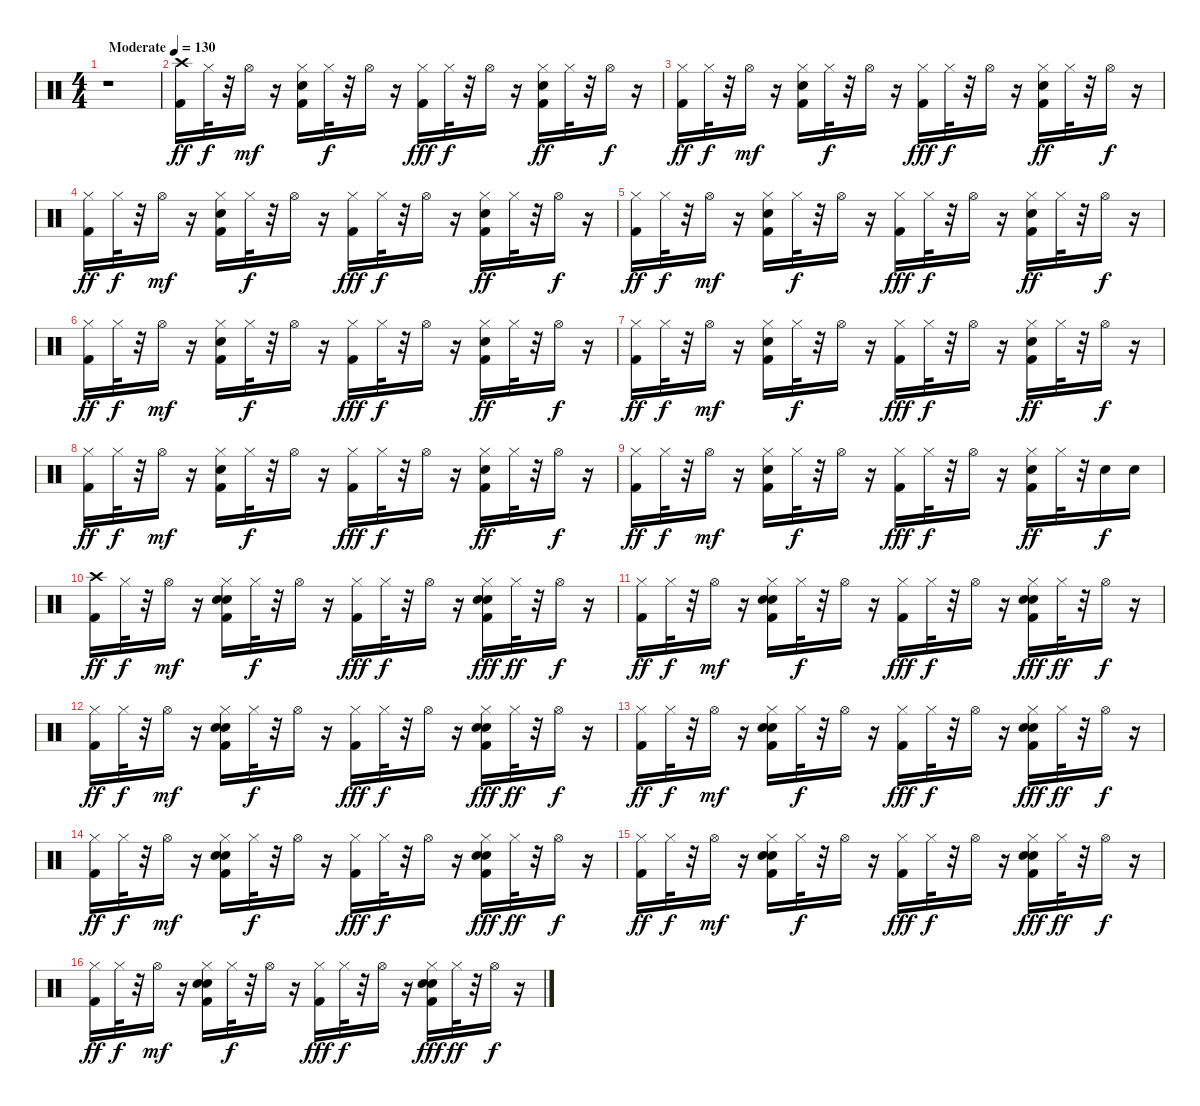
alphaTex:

\track "" {instrument percussion}
\staff {score}
\articulation defaults
\ts (4 4)
\tempo (130 "Moderate")
\clef neutral
\ks c
r.1{dy ff} |
("Kick (hit) 2" "Crash high (hit)").16 "Hi-Hat (closed)".32{dy f} r.32 "Hi-Hat (open)".16{dy mf} r.16 ("Kick (hit) 2" "Electric Snare (hit)" "Hi-Hat (closed)").16 "Hi-Hat (closed)".32{dy f} r.32 "Hi-Hat (open)".16 r.16 ("Kick (hit) 2" "Hi-Hat (closed)").16{dy fff} "Hi-Hat (closed)".32{dy f} r.32 "Hi-Hat (open)".16 r.16 ("Kick (hit) 2" "Electric Snare (hit)" "Hi-Hat (closed)").16{dy ff} "Hi-Hat (closed)".32 r.32 "Hi-Hat (open)".16{dy f} r.16 |
("Kick (hit) 2" "Hi-Hat (closed)").16{dy ff} "Hi-Hat (closed)".32{dy f} r.32 "Hi-Hat (open)".16{dy mf} r.16 ("Kick (hit) 2" "Electric Snare (hit)" "Hi-Hat (closed)").16 "Hi-Hat (closed)".32{dy f} r.32 "Hi-Hat (open)".16 r.16 ("Kick (hit) 2" "Hi-Hat (closed)").16{dy fff} "Hi-Hat (closed)".32{dy f} r.32 "Hi-Hat (open)".16 r.16 ("Kick (hit) 2" "Electric Snare (hit)" "Hi-Hat (closed)").16{dy ff} "Hi-Hat (closed)".32 r.32 "Hi-Hat (open)".16{dy f} r.16 |
("Kick (hit) 2" "Hi-Hat (closed)").16{dy ff} "Hi-Hat (closed)".32{dy f} r.32 "Hi-Hat (open)".16{dy mf} r.16 ("Kick (hit) 2" "Electric Snare (hit)" "Hi-Hat (closed)").16 "Hi-Hat (closed)".32{dy f} r.32 "Hi-Hat (open)".16 r.16 ("Kick (hit) 2" "Hi-Hat (closed)").16{dy fff} "Hi-Hat (closed)".32{dy f} r.32 "Hi-Hat (open)".16 r.16 ("Kick (hit) 2" "Electric Snare (hit)" "Hi-Hat (closed)").16{dy ff} "Hi-Hat (closed)".32 r.32 "Hi-Hat (open)".16{dy f} r.16 |
("Kick (hit) 2" "Hi-Hat (closed)").16{dy ff} "Hi-Hat (closed)".32{dy f} r.32 "Hi-Hat (open)".16{dy mf} r.16 ("Kick (hit) 2" "Electric Snare (hit)" "Hi-Hat (closed)").16 "Hi-Hat (closed)".32{dy f} r.32 "Hi-Hat (open)".16 r.16 ("Kick (hit) 2" "Hi-Hat (closed)").16{dy fff} "Hi-Hat (closed)".32{dy f} r.32 "Hi-Hat (open)".16 r.16 ("Kick (hit) 2" "Electric Snare (hit)" "Hi-Hat (closed)").16{dy ff} "Hi-Hat (closed)".32 r.32 "Hi-Hat (open)".16{dy f} r.16 |
("Kick (hit) 2" "Hi-Hat (closed)").16{dy ff} "Hi-Hat (closed)".32{dy f} r.32 "Hi-Hat (open)".16{dy mf} r.16 ("Kick (hit) 2" "Electric Snare (hit)" "Hi-Hat (closed)").16 "Hi-Hat (closed)".32{dy f} r.32 "Hi-Hat (open)".16 r.16 ("Kick (hit) 2" "Hi-Hat (closed)").16{dy fff} "Hi-Hat (closed)".32{dy f} r.32 "Hi-Hat (open)".16 r.16 ("Kick (hit) 2" "Electric Snare (hit)" "Hi-Hat (closed)").16{dy ff} "Hi-Hat (closed)".32 r.32 "Hi-Hat (open)".16{dy f} r.16 |
("Kick (hit) 2" "Hi-Hat (closed)").16{dy ff} "Hi-Hat (closed)".32{dy f} r.32 "Hi-Hat (open)".16{dy mf} r.16 ("Kick (hit) 2" "Electric Snare (hit)" "Hi-Hat (closed)").16 "Hi-Hat (closed)".32{dy f} r.32 "Hi-Hat (open)".16 r.16 ("Kick (hit) 2" "Hi-Hat (closed)").16{dy fff} "Hi-Hat (closed)".32{dy f} r.32 "Hi-Hat (open)".16 r.16 ("Kick (hit) 2" "Electric Snare (hit)" "Hi-Hat (closed)").16{dy ff} "Hi-Hat (closed)".32 r.32 "Hi-Hat (open)".16{dy f} r.16 |
("Kick (hit) 2" "Hi-Hat (closed)").16{dy ff} "Hi-Hat (closed)".32{dy f} r.32 "Hi-Hat (open)".16{dy mf} r.16 ("Kick (hit) 2" "Electric Snare (hit)" "Hi-Hat (closed)").16 "Hi-Hat (closed)".32{dy f} r.32 "Hi-Hat (open)".16 r.16 ("Kick (hit) 2" "Hi-Hat (closed)").16{dy fff} "Hi-Hat (closed)".32{dy f} r.32 "Hi-Hat (open)".16 r.16 ("Kick (hit) 2" "Electric Snare (hit)" "Hi-Hat (closed)").16{dy ff} "Hi-Hat (closed)".32 r.32 "Hi-Hat (open)".16{dy f} r.16 |
("Kick (hit) 2" "Hi-Hat (closed)").16{dy ff} "Hi-Hat (closed)".32{dy f} r.32 "Hi-Hat (open)".16{dy mf} r.16 ("Kick (hit) 2" "Electric Snare (hit)" "Hi-Hat (closed)").16 "Hi-Hat (closed)".32{dy f} r.32 "Hi-Hat (open)".16 r.16 ("Kick (hit) 2" "Hi-Hat (closed)").16{dy fff} "Hi-Hat (closed)".32{dy f} r.32 "Hi-Hat (open)".16 r.16 ("Kick (hit) 2" "Electric Snare (hit)" "Hi-Hat (closed)").16{dy ff} "Hi-Hat (closed)".32 r.32 "Electric Snare (hit)".16{dy f} "Electric Snare (hit)".16 |
("Kick (hit) 2" "Crash high (hit)").16{dy ff} "Hi-Hat (closed)".32{dy f} r.32 "Hi-Hat (open)".16{dy mf} r.16 ("Kick (hit) 2" "Hand Clap (hit)" "Electric Snare (hit)" "Hi-Hat (closed)").16 "Hi-Hat (closed)".32{dy f} r.32 "Hi-Hat (open)".16 r.16 ("Kick (hit) 2" "Hi-Hat (closed)").16{dy fff} "Hi-Hat (closed)".32{dy f} r.32 "Hi-Hat (open)".16 r.16 ("Kick (hit) 2" "Hand Clap (hit)" "Electric Snare (hit)" "Hi-Hat (closed)").16{dy fff} "Hi-Hat (closed)".32{dy ff} r.32 "Hi-Hat (open)".16{dy f} r.16 |
("Kick (hit) 2" "Hi-Hat (closed)").16{dy ff} "Hi-Hat (closed)".32{dy f} r.32 "Hi-Hat (open)".16{dy mf} r.16 ("Kick (hit) 2" "Hand Clap (hit)" "Electric Snare (hit)" "Hi-Hat (closed)").16 "Hi-Hat (closed)".32{dy f} r.32 "Hi-Hat (open)".16 r.16 ("Kick (hit) 2" "Hi-Hat (closed)").16{dy fff} "Hi-Hat (closed)".32{dy f} r.32 "Hi-Hat (open)".16 r.16 ("Kick (hit) 2" "Hand Clap (hit)" "Electric Snare (hit)" "Hi-Hat (closed)").16{dy fff} "Hi-Hat (closed)".32{dy ff} r.32 "Hi-Hat (open)".16{dy f} r.16 |
("Kick (hit) 2" "Hi-Hat (closed)").16{dy ff} "Hi-Hat (closed)".32{dy f} r.32 "Hi-Hat (open)".16{dy mf} r.16 ("Kick (hit) 2" "Hand Clap (hit)" "Electric Snare (hit)" "Hi-Hat (closed)").16 "Hi-Hat (closed)".32{dy f} r.32 "Hi-Hat (open)".16 r.16 ("Kick (hit) 2" "Hi-Hat (closed)").16{dy fff} "Hi-Hat (closed)".32{dy f} r.32 "Hi-Hat (open)".16 r.16 ("Kick (hit) 2" "Hand Clap (hit)" "Electric Snare (hit)" "Hi-Hat (closed)").16{dy fff} "Hi-Hat (closed)".32{dy ff} r.32 "Hi-Hat (open)".16{dy f} r.16 |
("Kick (hit) 2" "Hi-Hat (closed)").16{dy ff} "Hi-Hat (closed)".32{dy f} r.32 "Hi-Hat (open)".16{dy mf} r.16 ("Kick (hit) 2" "Hand Clap (hit)" "Electric Snare (hit)" "Hi-Hat (closed)").16 "Hi-Hat (closed)".32{dy f} r.32 "Hi-Hat (open)".16 r.16 ("Kick (hit) 2" "Hi-Hat (closed)").16{dy fff} "Hi-Hat (closed)".32{dy f} r.32 "Hi-Hat (open)".16 r.16 ("Kick (hit) 2" "Hand Clap (hit)" "Electric Snare (hit)" "Hi-Hat (closed)").16{dy fff} "Hi-Hat (closed)".32{dy ff} r.32 "Hi-Hat (open)".16{dy f} r.16 |
("Kick (hit) 2" "Hi-Hat (closed)").16{dy ff} "Hi-Hat (closed)".32{dy f} r.32 "Hi-Hat (open)".16{dy mf} r.16 ("Kick (hit) 2" "Hand Clap (hit)" "Electric Snare (hit)" "Hi-Hat (closed)").16 "Hi-Hat (closed)".32{dy f} r.32 "Hi-Hat (open)".16 r.16 ("Kick (hit) 2" "Hi-Hat (closed)").16{dy fff} "Hi-Hat (closed)".32{dy f} r.32 "Hi-Hat (open)".16 r.16 ("Kick (hit) 2" "Hand Clap (hit)" "Electric Snare (hit)" "Hi-Hat (closed)").16{dy fff} "Hi-Hat (closed)".32{dy ff} r.32 "Hi-Hat (open)".16{dy f} r.16 |
("Kick (hit) 2" "Hi-Hat (closed)").16{dy ff} "Hi-Hat (closed)".32{dy f} r.32 "Hi-Hat (open)".16{dy mf} r.16 ("Kick (hit) 2" "Hand Clap (hit)" "Electric Snare (hit)" "Hi-Hat (closed)").16 "Hi-Hat (closed)".32{dy f} r.32 "Hi-Hat (open)".16 r.16 ("Kick (hit) 2" "Hi-Hat (closed)").16{dy fff} "Hi-Hat (closed)".32{dy f} r.32 "Hi-Hat (open)".16 r.16 ("Kick (hit) 2" "Hand Clap (hit)" "Electric Snare (hit)" "Hi-Hat (closed)").16{dy fff} "Hi-Hat (closed)".32{dy ff} r.32 "Hi-Hat (open)".16{dy f} r.16 |
("Kick (hit) 2" "Hi-Hat (closed)").16{dy ff} "Hi-Hat (closed)".32{dy f} r.32 "Hi-Hat (open)".16{dy mf} r.16 ("Kick (hit) 2" "Hand Clap (hit)" "Electric Snare (hit)" "Hi-Hat (closed)").16 "Hi-Hat (closed)".32{dy f} r.32 "Hi-Hat (open)".16 r.16 ("Kick (hit) 2" "Hi-Hat (closed)").16{dy fff} "Hi-Hat (closed)".32{dy f} r.32 "Hi-Hat (open)".16 r.16 ("Kick (hit) 2" "Hand Clap (hit)" "Electric Snare (hit)" "Hi-Hat (closed)").16{dy fff} "Hi-Hat (closed)".32{dy ff} r.32 "Hi-Hat (open)".16{dy f} r.16
